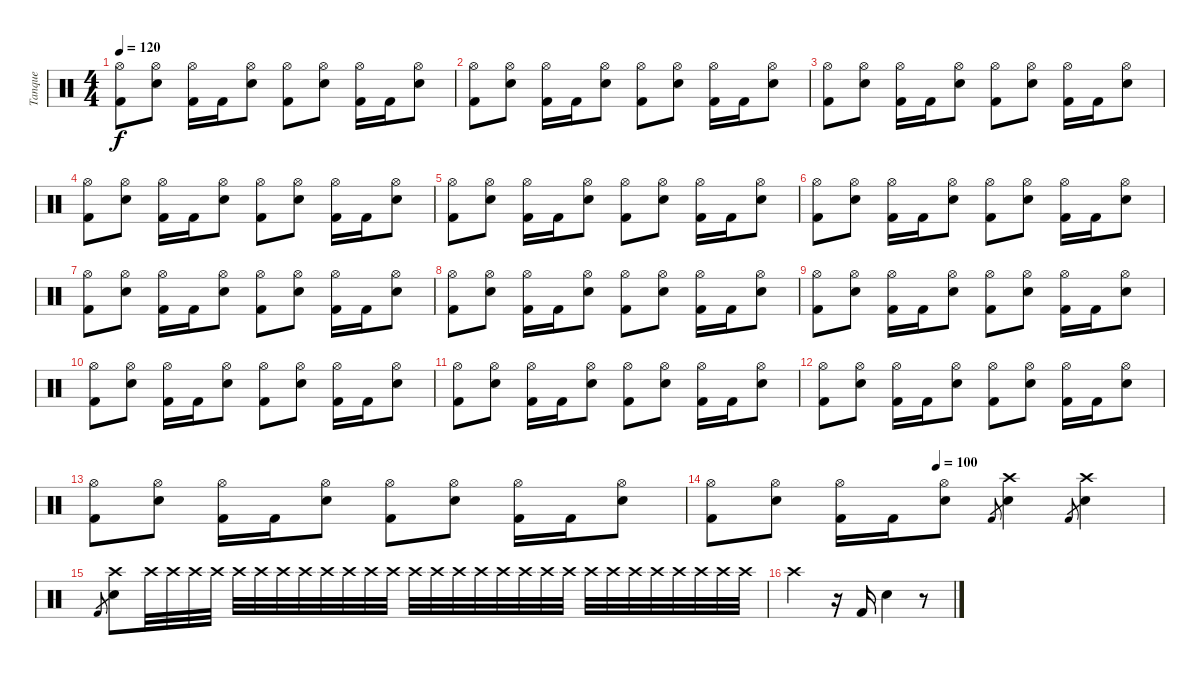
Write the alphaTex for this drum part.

\track ("Tanque" "Tanque") {instrument percussion}
\staff {score}
\articulation defaults
\ts (4 4)
\tempo 120
\clef neutral
\ks c
("Kick (hit) 2" "Hi-Hat (open)").8{dy f} ("Snare (hit) 2" "Hi-Hat (open)").8 ("Kick (hit) 2" "Hi-Hat (open)").16 "Kick (hit) 2".16 ("Snare (hit) 2" "Hi-Hat (open)").8 ("Kick (hit) 2" "Hi-Hat (open)").8 ("Snare (hit) 2" "Hi-Hat (open)").8 ("Kick (hit) 2" "Hi-Hat (open)").16 "Kick (hit) 2".16 ("Snare (hit) 2" "Hi-Hat (open)").8 |
("Kick (hit) 2" "Hi-Hat (open)").8 ("Snare (hit) 2" "Hi-Hat (open)").8 ("Kick (hit) 2" "Hi-Hat (open)").16 "Kick (hit) 2".16 ("Snare (hit) 2" "Hi-Hat (open)").8 ("Kick (hit) 2" "Hi-Hat (open)").8 ("Snare (hit) 2" "Hi-Hat (open)").8 ("Kick (hit) 2" "Hi-Hat (open)").16 "Kick (hit) 2".16 ("Snare (hit) 2" "Hi-Hat (open)").8 |
("Kick (hit) 2" "Hi-Hat (open)").8 ("Snare (hit) 2" "Hi-Hat (open)").8 ("Kick (hit) 2" "Hi-Hat (open)").16 "Kick (hit) 2".16 ("Snare (hit) 2" "Hi-Hat (open)").8 ("Kick (hit) 2" "Hi-Hat (open)").8 ("Snare (hit) 2" "Hi-Hat (open)").8 ("Kick (hit) 2" "Hi-Hat (open)").16 "Kick (hit) 2".16 ("Snare (hit) 2" "Hi-Hat (open)").8 |
("Kick (hit) 2" "Hi-Hat (open)").8 ("Snare (hit) 2" "Hi-Hat (open)").8 ("Kick (hit) 2" "Hi-Hat (open)").16 "Kick (hit) 2".16 ("Snare (hit) 2" "Hi-Hat (open)").8 ("Kick (hit) 2" "Hi-Hat (open)").8 ("Snare (hit) 2" "Hi-Hat (open)").8 ("Kick (hit) 2" "Hi-Hat (open)").16 "Kick (hit) 2".16 ("Snare (hit) 2" "Hi-Hat (open)").8 |
("Kick (hit) 2" "Hi-Hat (open)").8 ("Snare (hit) 2" "Hi-Hat (open)").8 ("Kick (hit) 2" "Hi-Hat (open)").16 "Kick (hit) 2".16 ("Snare (hit) 2" "Hi-Hat (open)").8 ("Kick (hit) 2" "Hi-Hat (open)").8 ("Snare (hit) 2" "Hi-Hat (open)").8 ("Kick (hit) 2" "Hi-Hat (open)").16 "Kick (hit) 2".16 ("Snare (hit) 2" "Hi-Hat (open)").8 |
("Kick (hit) 2" "Hi-Hat (open)").8 ("Snare (hit) 2" "Hi-Hat (open)").8 ("Kick (hit) 2" "Hi-Hat (open)").16 "Kick (hit) 2".16 ("Snare (hit) 2" "Hi-Hat (open)").8 ("Kick (hit) 2" "Hi-Hat (open)").8 ("Snare (hit) 2" "Hi-Hat (open)").8 ("Kick (hit) 2" "Hi-Hat (open)").16 "Kick (hit) 2".16 ("Snare (hit) 2" "Hi-Hat (open)").8 |
("Kick (hit) 2" "Hi-Hat (open)").8 ("Snare (hit) 2" "Hi-Hat (open)").8 ("Kick (hit) 2" "Hi-Hat (open)").16 "Kick (hit) 2".16 ("Snare (hit) 2" "Hi-Hat (open)").8 ("Kick (hit) 2" "Hi-Hat (open)").8 ("Snare (hit) 2" "Hi-Hat (open)").8 ("Kick (hit) 2" "Hi-Hat (open)").16 "Kick (hit) 2".16 ("Snare (hit) 2" "Hi-Hat (open)").8 |
("Kick (hit) 2" "Hi-Hat (open)").8 ("Snare (hit) 2" "Hi-Hat (open)").8 ("Kick (hit) 2" "Hi-Hat (open)").16 "Kick (hit) 2".16 ("Snare (hit) 2" "Hi-Hat (open)").8 ("Kick (hit) 2" "Hi-Hat (open)").8 ("Snare (hit) 2" "Hi-Hat (open)").8 ("Kick (hit) 2" "Hi-Hat (open)").16 "Kick (hit) 2".16 ("Snare (hit) 2" "Hi-Hat (open)").8 |
("Kick (hit) 2" "Hi-Hat (open)").8 ("Snare (hit) 2" "Hi-Hat (open)").8 ("Kick (hit) 2" "Hi-Hat (open)").16 "Kick (hit) 2".16 ("Snare (hit) 2" "Hi-Hat (open)").8 ("Kick (hit) 2" "Hi-Hat (open)").8 ("Snare (hit) 2" "Hi-Hat (open)").8 ("Kick (hit) 2" "Hi-Hat (open)").16 "Kick (hit) 2".16 ("Snare (hit) 2" "Hi-Hat (open)").8 |
("Kick (hit) 2" "Hi-Hat (open)").8 ("Snare (hit) 2" "Hi-Hat (open)").8 ("Kick (hit) 2" "Hi-Hat (open)").16 "Kick (hit) 2".16 ("Snare (hit) 2" "Hi-Hat (open)").8 ("Kick (hit) 2" "Hi-Hat (open)").8 ("Snare (hit) 2" "Hi-Hat (open)").8 ("Kick (hit) 2" "Hi-Hat (open)").16 "Kick (hit) 2".16 ("Snare (hit) 2" "Hi-Hat (open)").8 |
("Kick (hit) 2" "Hi-Hat (open)").8 ("Snare (hit) 2" "Hi-Hat (open)").8 ("Kick (hit) 2" "Hi-Hat (open)").16 "Kick (hit) 2".16 ("Snare (hit) 2" "Hi-Hat (open)").8 ("Kick (hit) 2" "Hi-Hat (open)").8 ("Snare (hit) 2" "Hi-Hat (open)").8 ("Kick (hit) 2" "Hi-Hat (open)").16 "Kick (hit) 2".16 ("Snare (hit) 2" "Hi-Hat (open)").8 |
("Kick (hit) 2" "Hi-Hat (open)").8 ("Snare (hit) 2" "Hi-Hat (open)").8 ("Kick (hit) 2" "Hi-Hat (open)").16 "Kick (hit) 2".16 ("Snare (hit) 2" "Hi-Hat (open)").8 ("Kick (hit) 2" "Hi-Hat (open)").8 ("Snare (hit) 2" "Hi-Hat (open)").8 ("Kick (hit) 2" "Hi-Hat (open)").16 "Kick (hit) 2".16 ("Snare (hit) 2" "Hi-Hat (open)").8 |
("Kick (hit) 2" "Hi-Hat (open)").8 ("Snare (hit) 2" "Hi-Hat (open)").8 ("Kick (hit) 2" "Hi-Hat (open)").16 "Kick (hit) 2".16 ("Snare (hit) 2" "Hi-Hat (open)").8 ("Kick (hit) 2" "Hi-Hat (open)").8 ("Snare (hit) 2" "Hi-Hat (open)").8 ("Kick (hit) 2" "Hi-Hat (open)").16 "Kick (hit) 2".16 ("Snare (hit) 2" "Hi-Hat (open)").8 |
\tempo (100 0.5)
("Kick (hit) 2" "Hi-Hat (open)").8 ("Snare (hit) 2" "Hi-Hat (open)").8 ("Kick (hit) 2" "Hi-Hat (open)").16 "Kick (hit) 2".16 ("Snare (hit) 2" "Hi-Hat (open)").8 "Kick (hit) 2".8{gr} ("Crash high (hit)" "Snare (hit) 2").4 "Kick (hit) 2".8{gr} ("Crash high (hit)" "Snare (hit) 2").4 |
"Kick (hit) 2".8{gr} ("Crash high (hit)" "Snare (hit) 2").8 "Crash high (hit)".32 "Crash high (hit)".32 "Crash high (hit)".32 "Crash high (hit)".32 "Crash high (hit)".32 "Crash high (hit)".32 "Crash high (hit)".32 "Crash high (hit)".32 "Crash high (hit)".32 "Crash high (hit)".32 "Crash high (hit)".32 "Crash high (hit)".32 "Crash high (hit)".32 "Crash high (hit)".32 "Crash high (hit)".32 "Crash high (hit)".32 "Crash high (hit)".32 "Crash high (hit)".32 "Crash high (hit)".32 "Crash high (hit)".32 "Crash high (hit)".32 "Crash high (hit)".32 "Crash high (hit)".32 "Crash high (hit)".32 "Crash high (hit)".32 "Crash high (hit)".32 "Crash high (hit)".32 "Crash high (hit)".32 |
"Crash high (hit)".2 r.16 "Kick (hit) 2".16 "Snare (hit) 2".4 r.8
